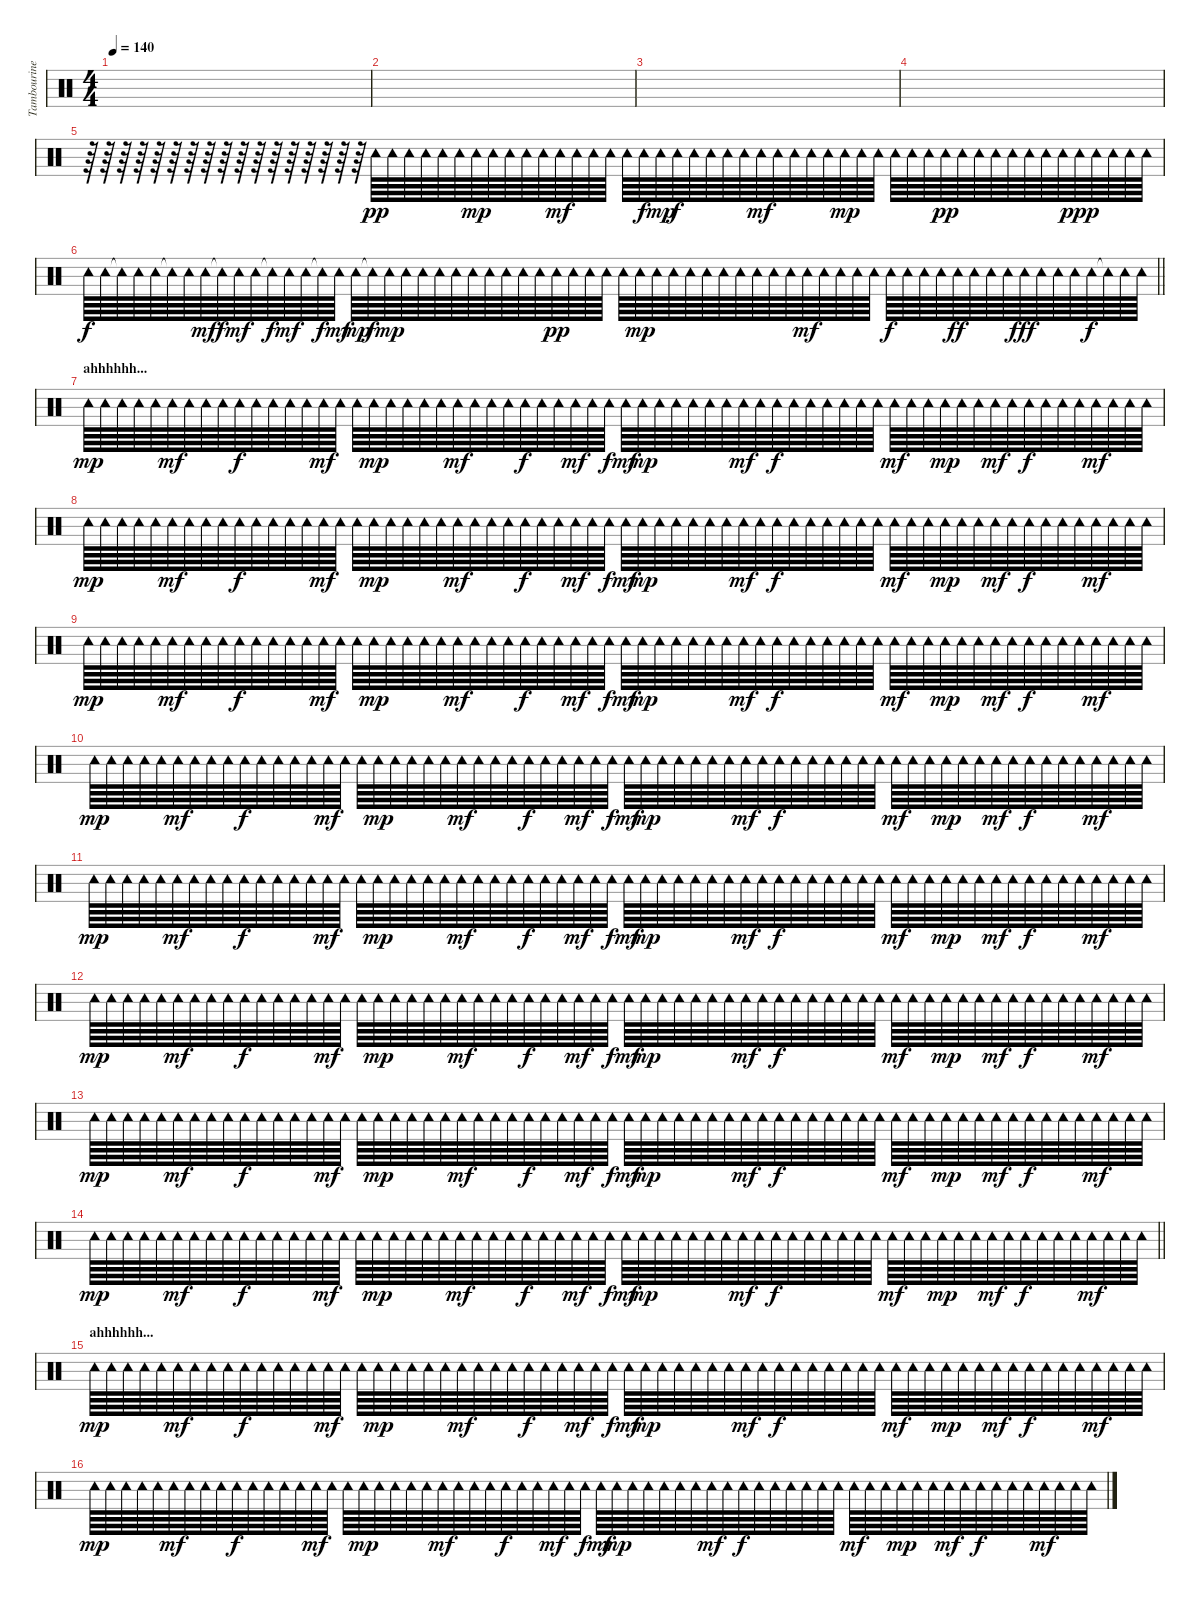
\track ("Tambourine" "Tambourine") {instrument percussion}
\staff {score}
\articulation defaults
\ts (4 4)
\tempo 140
\clef neutral
\ks c
|
|
|
|
r.64 r.64 r.64 r.64 r.64 r.64 r.64 r.64 r.64 r.64 r.64 r.64 r.64 r.64 r.64 r.64 r.64 "Tambourine (hit)".64{dy pp} "Tambourine (hit)".64 "Tambourine (hit)".64 "Tambourine (hit)".64 "Tambourine (hit)".64 "Tambourine (hit)".64 "Tambourine (hit)".64{dy mp} "Tambourine (hit)".64 "Tambourine (hit)".64 "Tambourine (hit)".64 "Tambourine (hit)".64 "Tambourine (hit)".64{dy mf} "Tambourine (hit)".64 "Tambourine (hit)".64 "Tambourine (hit)".64 "Tambourine (hit)".64 "Tambourine (hit)".64{dy f} "Tambourine (hit)".64{dy mp} "Tambourine (hit)".64{dy f} "Tambourine (hit)".64 "Tambourine (hit)".64 "Tambourine (hit)".64 "Tambourine (hit)".64 "Tambourine (hit)".64{dy mf} "Tambourine (hit)".64 "Tambourine (hit)".64 "Tambourine (hit)".64 "Tambourine (hit)".64 "Tambourine (hit)".64{dy mp} "Tambourine (hit)".64 "Tambourine (hit)".64 "Tambourine (hit)".64 "Tambourine (hit)".64 "Tambourine (hit)".64 "Tambourine (hit)".64{dy pp} "Tambourine (hit)".64 "Tambourine (hit)".64 "Tambourine (hit)".64 "Tambourine (hit)".64 "Tambourine (hit)".64 "Tambourine (hit)".64 "Tambourine (hit)".64 "Tambourine (hit)".64{dy ppp} "Tambourine (hit)".64 "Tambourine (hit)".64 "Tambourine (hit)".64 "Tambourine (hit)".64 |
\barLineRight lightlight "Tambourine (hit)".64{dy f} "Tambourine (hit)".64 "Tambourine (hit)"{t}.64 "Tambourine (hit)".64 "Tambourine (hit)".64 "Tambourine (hit)"{t}.64 "Tambourine (hit)".64 "Tambourine (hit)".64{dy mf} "Tambourine (hit)"{t}.64{dy f} "Tambourine (hit)".64{dy mf} "Tambourine (hit)".64 "Tambourine (hit)"{t}.64{dy f} "Tambourine (hit)".64{dy mf} "Tambourine (hit)".64 "Tambourine (hit)"{t}.64{dy f} "Tambourine (hit)".64{dy mf} "Tambourine (hit)".64{dy mp} "Tambourine (hit)"{t}.64{dy f} "Tambourine (hit)".64{dy mp} "Tambourine (hit)".64 "Tambourine (hit)".64 "Tambourine (hit)".64 "Tambourine (hit)".64 "Tambourine (hit)".64 "Tambourine (hit)".64 "Tambourine (hit)".64 "Tambourine (hit)".64 "Tambourine (hit)".64 "Tambourine (hit)".64{dy pp} "Tambourine (hit)".64 "Tambourine (hit)".64 "Tambourine (hit)".64 "Tambourine (hit)".64 "Tambourine (hit)".64{dy mp} "Tambourine (hit)".64 "Tambourine (hit)".64 "Tambourine (hit)".64 "Tambourine (hit)".64 "Tambourine (hit)".64 "Tambourine (hit)".64 "Tambourine (hit)".64 "Tambourine (hit)".64 "Tambourine (hit)".64 "Tambourine (hit)".64{dy mf} "Tambourine (hit)".64 "Tambourine (hit)".64 "Tambourine (hit)".64 "Tambourine (hit)".64 "Tambourine (hit)".64{dy f} "Tambourine (hit)".64 "Tambourine (hit)".64 "Tambourine (hit)".64 "Tambourine (hit)".64{dy ff} "Tambourine (hit)".64 "Tambourine (hit)".64 "Tambourine (hit)".64 "Tambourine (hit)".64{dy fff} "Tambourine (hit)".64 "Tambourine (hit)".64 "Tambourine (hit)".64 "Tambourine (hit)".64{dy f} "Tambourine (hit)"{t}.64 "Tambourine (hit)".64 "Tambourine (hit)".64
|
\section ("" "ahhhhhh...")
"Tambourine (hit)".64{dy mp} "Tambourine (hit)".64 "Tambourine (hit)".64 "Tambourine (hit)".64 "Tambourine (hit)".64 "Tambourine (hit)".64{dy mf} "Tambourine (hit)".64 "Tambourine (hit)".64 "Tambourine (hit)".64 "Tambourine (hit)".64{dy f} "Tambourine (hit)".64 "Tambourine (hit)".64 "Tambourine (hit)".64 "Tambourine (hit)".64 "Tambourine (hit)".64{dy mf} "Tambourine (hit)".64 "Tambourine (hit)".64 "Tambourine (hit)".64{dy mp} "Tambourine (hit)".64 "Tambourine (hit)".64 "Tambourine (hit)".64 "Tambourine (hit)".64 "Tambourine (hit)".64{dy mf} "Tambourine (hit)".64 "Tambourine (hit)".64 "Tambourine (hit)".64 "Tambourine (hit)".64{dy f} "Tambourine (hit)".64 "Tambourine (hit)".64 "Tambourine (hit)".64{dy mf} "Tambourine (hit)".64 "Tambourine (hit)".64{dy f} "Tambourine (hit)".64{dy mf} "Tambourine (hit)".64{dy mp} "Tambourine (hit)".64 "Tambourine (hit)".64 "Tambourine (hit)".64 "Tambourine (hit)".64 "Tambourine (hit)".64 "Tambourine (hit)".64{dy mf} "Tambourine (hit)".64 "Tambourine (hit)".64{dy f} "Tambourine (hit)".64 "Tambourine (hit)".64 "Tambourine (hit)".64 "Tambourine (hit)".64 "Tambourine (hit)".64 "Tambourine (hit)".64 "Tambourine (hit)".64{dy mf} "Tambourine (hit)".64 "Tambourine (hit)".64 "Tambourine (hit)".64{dy mp} "Tambourine (hit)".64 "Tambourine (hit)".64 "Tambourine (hit)".64{dy mf} "Tambourine (hit)".64 "Tambourine (hit)".64{dy f} "Tambourine (hit)".64 "Tambourine (hit)".64 "Tambourine (hit)".64 "Tambourine (hit)".64{dy mf} "Tambourine (hit)".64 "Tambourine (hit)".64 "Tambourine (hit)".64 |
"Tambourine (hit)".64{dy mp} "Tambourine (hit)".64 "Tambourine (hit)".64 "Tambourine (hit)".64 "Tambourine (hit)".64 "Tambourine (hit)".64{dy mf} "Tambourine (hit)".64 "Tambourine (hit)".64 "Tambourine (hit)".64 "Tambourine (hit)".64{dy f} "Tambourine (hit)".64 "Tambourine (hit)".64 "Tambourine (hit)".64 "Tambourine (hit)".64 "Tambourine (hit)".64{dy mf} "Tambourine (hit)".64 "Tambourine (hit)".64 "Tambourine (hit)".64{dy mp} "Tambourine (hit)".64 "Tambourine (hit)".64 "Tambourine (hit)".64 "Tambourine (hit)".64 "Tambourine (hit)".64{dy mf} "Tambourine (hit)".64 "Tambourine (hit)".64 "Tambourine (hit)".64 "Tambourine (hit)".64{dy f} "Tambourine (hit)".64 "Tambourine (hit)".64 "Tambourine (hit)".64{dy mf} "Tambourine (hit)".64 "Tambourine (hit)".64{dy f} "Tambourine (hit)".64{dy mf} "Tambourine (hit)".64{dy mp} "Tambourine (hit)".64 "Tambourine (hit)".64 "Tambourine (hit)".64 "Tambourine (hit)".64 "Tambourine (hit)".64 "Tambourine (hit)".64{dy mf} "Tambourine (hit)".64 "Tambourine (hit)".64{dy f} "Tambourine (hit)".64 "Tambourine (hit)".64 "Tambourine (hit)".64 "Tambourine (hit)".64 "Tambourine (hit)".64 "Tambourine (hit)".64 "Tambourine (hit)".64{dy mf} "Tambourine (hit)".64 "Tambourine (hit)".64 "Tambourine (hit)".64{dy mp} "Tambourine (hit)".64 "Tambourine (hit)".64 "Tambourine (hit)".64{dy mf} "Tambourine (hit)".64 "Tambourine (hit)".64{dy f} "Tambourine (hit)".64 "Tambourine (hit)".64 "Tambourine (hit)".64 "Tambourine (hit)".64{dy mf} "Tambourine (hit)".64 "Tambourine (hit)".64 "Tambourine (hit)".64 |
"Tambourine (hit)".64{dy mp} "Tambourine (hit)".64 "Tambourine (hit)".64 "Tambourine (hit)".64 "Tambourine (hit)".64 "Tambourine (hit)".64{dy mf} "Tambourine (hit)".64 "Tambourine (hit)".64 "Tambourine (hit)".64 "Tambourine (hit)".64{dy f} "Tambourine (hit)".64 "Tambourine (hit)".64 "Tambourine (hit)".64 "Tambourine (hit)".64 "Tambourine (hit)".64{dy mf} "Tambourine (hit)".64 "Tambourine (hit)".64 "Tambourine (hit)".64{dy mp} "Tambourine (hit)".64 "Tambourine (hit)".64 "Tambourine (hit)".64 "Tambourine (hit)".64 "Tambourine (hit)".64{dy mf} "Tambourine (hit)".64 "Tambourine (hit)".64 "Tambourine (hit)".64 "Tambourine (hit)".64{dy f} "Tambourine (hit)".64 "Tambourine (hit)".64 "Tambourine (hit)".64{dy mf} "Tambourine (hit)".64 "Tambourine (hit)".64{dy f} "Tambourine (hit)".64{dy mf} "Tambourine (hit)".64{dy mp} "Tambourine (hit)".64 "Tambourine (hit)".64 "Tambourine (hit)".64 "Tambourine (hit)".64 "Tambourine (hit)".64 "Tambourine (hit)".64{dy mf} "Tambourine (hit)".64 "Tambourine (hit)".64{dy f} "Tambourine (hit)".64 "Tambourine (hit)".64 "Tambourine (hit)".64 "Tambourine (hit)".64 "Tambourine (hit)".64 "Tambourine (hit)".64 "Tambourine (hit)".64{dy mf} "Tambourine (hit)".64 "Tambourine (hit)".64 "Tambourine (hit)".64{dy mp} "Tambourine (hit)".64 "Tambourine (hit)".64 "Tambourine (hit)".64{dy mf} "Tambourine (hit)".64 "Tambourine (hit)".64{dy f} "Tambourine (hit)".64 "Tambourine (hit)".64 "Tambourine (hit)".64 "Tambourine (hit)".64{dy mf} "Tambourine (hit)".64 "Tambourine (hit)".64 "Tambourine (hit)".64 |
"Tambourine (hit)".64{dy mp} "Tambourine (hit)".64 "Tambourine (hit)".64 "Tambourine (hit)".64 "Tambourine (hit)".64 "Tambourine (hit)".64{dy mf} "Tambourine (hit)".64 "Tambourine (hit)".64 "Tambourine (hit)".64 "Tambourine (hit)".64{dy f} "Tambourine (hit)".64 "Tambourine (hit)".64 "Tambourine (hit)".64 "Tambourine (hit)".64 "Tambourine (hit)".64{dy mf} "Tambourine (hit)".64 "Tambourine (hit)".64 "Tambourine (hit)".64{dy mp} "Tambourine (hit)".64 "Tambourine (hit)".64 "Tambourine (hit)".64 "Tambourine (hit)".64 "Tambourine (hit)".64{dy mf} "Tambourine (hit)".64 "Tambourine (hit)".64 "Tambourine (hit)".64 "Tambourine (hit)".64{dy f} "Tambourine (hit)".64 "Tambourine (hit)".64 "Tambourine (hit)".64{dy mf} "Tambourine (hit)".64 "Tambourine (hit)".64{dy f} "Tambourine (hit)".64{dy mf} "Tambourine (hit)".64{dy mp} "Tambourine (hit)".64 "Tambourine (hit)".64 "Tambourine (hit)".64 "Tambourine (hit)".64 "Tambourine (hit)".64 "Tambourine (hit)".64{dy mf} "Tambourine (hit)".64 "Tambourine (hit)".64{dy f} "Tambourine (hit)".64 "Tambourine (hit)".64 "Tambourine (hit)".64 "Tambourine (hit)".64 "Tambourine (hit)".64 "Tambourine (hit)".64 "Tambourine (hit)".64{dy mf} "Tambourine (hit)".64 "Tambourine (hit)".64 "Tambourine (hit)".64{dy mp} "Tambourine (hit)".64 "Tambourine (hit)".64 "Tambourine (hit)".64{dy mf} "Tambourine (hit)".64 "Tambourine (hit)".64{dy f} "Tambourine (hit)".64 "Tambourine (hit)".64 "Tambourine (hit)".64 "Tambourine (hit)".64{dy mf} "Tambourine (hit)".64 "Tambourine (hit)".64 "Tambourine (hit)".64 |
"Tambourine (hit)".64{dy mp} "Tambourine (hit)".64 "Tambourine (hit)".64 "Tambourine (hit)".64 "Tambourine (hit)".64 "Tambourine (hit)".64{dy mf} "Tambourine (hit)".64 "Tambourine (hit)".64 "Tambourine (hit)".64 "Tambourine (hit)".64{dy f} "Tambourine (hit)".64 "Tambourine (hit)".64 "Tambourine (hit)".64 "Tambourine (hit)".64 "Tambourine (hit)".64{dy mf} "Tambourine (hit)".64 "Tambourine (hit)".64 "Tambourine (hit)".64{dy mp} "Tambourine (hit)".64 "Tambourine (hit)".64 "Tambourine (hit)".64 "Tambourine (hit)".64 "Tambourine (hit)".64{dy mf} "Tambourine (hit)".64 "Tambourine (hit)".64 "Tambourine (hit)".64 "Tambourine (hit)".64{dy f} "Tambourine (hit)".64 "Tambourine (hit)".64 "Tambourine (hit)".64{dy mf} "Tambourine (hit)".64 "Tambourine (hit)".64{dy f} "Tambourine (hit)".64{dy mf} "Tambourine (hit)".64{dy mp} "Tambourine (hit)".64 "Tambourine (hit)".64 "Tambourine (hit)".64 "Tambourine (hit)".64 "Tambourine (hit)".64 "Tambourine (hit)".64{dy mf} "Tambourine (hit)".64 "Tambourine (hit)".64{dy f} "Tambourine (hit)".64 "Tambourine (hit)".64 "Tambourine (hit)".64 "Tambourine (hit)".64 "Tambourine (hit)".64 "Tambourine (hit)".64 "Tambourine (hit)".64{dy mf} "Tambourine (hit)".64 "Tambourine (hit)".64 "Tambourine (hit)".64{dy mp} "Tambourine (hit)".64 "Tambourine (hit)".64 "Tambourine (hit)".64{dy mf} "Tambourine (hit)".64 "Tambourine (hit)".64{dy f} "Tambourine (hit)".64 "Tambourine (hit)".64 "Tambourine (hit)".64 "Tambourine (hit)".64{dy mf} "Tambourine (hit)".64 "Tambourine (hit)".64 "Tambourine (hit)".64 |
"Tambourine (hit)".64{dy mp} "Tambourine (hit)".64 "Tambourine (hit)".64 "Tambourine (hit)".64 "Tambourine (hit)".64 "Tambourine (hit)".64{dy mf} "Tambourine (hit)".64 "Tambourine (hit)".64 "Tambourine (hit)".64 "Tambourine (hit)".64{dy f} "Tambourine (hit)".64 "Tambourine (hit)".64 "Tambourine (hit)".64 "Tambourine (hit)".64 "Tambourine (hit)".64{dy mf} "Tambourine (hit)".64 "Tambourine (hit)".64 "Tambourine (hit)".64{dy mp} "Tambourine (hit)".64 "Tambourine (hit)".64 "Tambourine (hit)".64 "Tambourine (hit)".64 "Tambourine (hit)".64{dy mf} "Tambourine (hit)".64 "Tambourine (hit)".64 "Tambourine (hit)".64 "Tambourine (hit)".64{dy f} "Tambourine (hit)".64 "Tambourine (hit)".64 "Tambourine (hit)".64{dy mf} "Tambourine (hit)".64 "Tambourine (hit)".64{dy f} "Tambourine (hit)".64{dy mf} "Tambourine (hit)".64{dy mp} "Tambourine (hit)".64 "Tambourine (hit)".64 "Tambourine (hit)".64 "Tambourine (hit)".64 "Tambourine (hit)".64 "Tambourine (hit)".64{dy mf} "Tambourine (hit)".64 "Tambourine (hit)".64{dy f} "Tambourine (hit)".64 "Tambourine (hit)".64 "Tambourine (hit)".64 "Tambourine (hit)".64 "Tambourine (hit)".64 "Tambourine (hit)".64 "Tambourine (hit)".64{dy mf} "Tambourine (hit)".64 "Tambourine (hit)".64 "Tambourine (hit)".64{dy mp} "Tambourine (hit)".64 "Tambourine (hit)".64 "Tambourine (hit)".64{dy mf} "Tambourine (hit)".64 "Tambourine (hit)".64{dy f} "Tambourine (hit)".64 "Tambourine (hit)".64 "Tambourine (hit)".64 "Tambourine (hit)".64{dy mf} "Tambourine (hit)".64 "Tambourine (hit)".64 "Tambourine (hit)".64 |
"Tambourine (hit)".64{dy mp} "Tambourine (hit)".64 "Tambourine (hit)".64 "Tambourine (hit)".64 "Tambourine (hit)".64 "Tambourine (hit)".64{dy mf} "Tambourine (hit)".64 "Tambourine (hit)".64 "Tambourine (hit)".64 "Tambourine (hit)".64{dy f} "Tambourine (hit)".64 "Tambourine (hit)".64 "Tambourine (hit)".64 "Tambourine (hit)".64 "Tambourine (hit)".64{dy mf} "Tambourine (hit)".64 "Tambourine (hit)".64 "Tambourine (hit)".64{dy mp} "Tambourine (hit)".64 "Tambourine (hit)".64 "Tambourine (hit)".64 "Tambourine (hit)".64 "Tambourine (hit)".64{dy mf} "Tambourine (hit)".64 "Tambourine (hit)".64 "Tambourine (hit)".64 "Tambourine (hit)".64{dy f} "Tambourine (hit)".64 "Tambourine (hit)".64 "Tambourine (hit)".64{dy mf} "Tambourine (hit)".64 "Tambourine (hit)".64{dy f} "Tambourine (hit)".64{dy mf} "Tambourine (hit)".64{dy mp} "Tambourine (hit)".64 "Tambourine (hit)".64 "Tambourine (hit)".64 "Tambourine (hit)".64 "Tambourine (hit)".64 "Tambourine (hit)".64{dy mf} "Tambourine (hit)".64 "Tambourine (hit)".64{dy f} "Tambourine (hit)".64 "Tambourine (hit)".64 "Tambourine (hit)".64 "Tambourine (hit)".64 "Tambourine (hit)".64 "Tambourine (hit)".64 "Tambourine (hit)".64{dy mf} "Tambourine (hit)".64 "Tambourine (hit)".64 "Tambourine (hit)".64{dy mp} "Tambourine (hit)".64 "Tambourine (hit)".64 "Tambourine (hit)".64{dy mf} "Tambourine (hit)".64 "Tambourine (hit)".64{dy f} "Tambourine (hit)".64 "Tambourine (hit)".64 "Tambourine (hit)".64 "Tambourine (hit)".64{dy mf} "Tambourine (hit)".64 "Tambourine (hit)".64 "Tambourine (hit)".64 |
\barLineRight lightlight "Tambourine (hit)".64{dy mp} "Tambourine (hit)".64 "Tambourine (hit)".64 "Tambourine (hit)".64 "Tambourine (hit)".64 "Tambourine (hit)".64{dy mf} "Tambourine (hit)".64 "Tambourine (hit)".64 "Tambourine (hit)".64 "Tambourine (hit)".64{dy f} "Tambourine (hit)".64 "Tambourine (hit)".64 "Tambourine (hit)".64 "Tambourine (hit)".64 "Tambourine (hit)".64{dy mf} "Tambourine (hit)".64 "Tambourine (hit)".64 "Tambourine (hit)".64{dy mp} "Tambourine (hit)".64 "Tambourine (hit)".64 "Tambourine (hit)".64 "Tambourine (hit)".64 "Tambourine (hit)".64{dy mf} "Tambourine (hit)".64 "Tambourine (hit)".64 "Tambourine (hit)".64 "Tambourine (hit)".64{dy f} "Tambourine (hit)".64 "Tambourine (hit)".64 "Tambourine (hit)".64{dy mf} "Tambourine (hit)".64 "Tambourine (hit)".64{dy f} "Tambourine (hit)".64{dy mf} "Tambourine (hit)".64{dy mp} "Tambourine (hit)".64 "Tambourine (hit)".64 "Tambourine (hit)".64 "Tambourine (hit)".64 "Tambourine (hit)".64 "Tambourine (hit)".64{dy mf} "Tambourine (hit)".64 "Tambourine (hit)".64{dy f} "Tambourine (hit)".64 "Tambourine (hit)".64 "Tambourine (hit)".64 "Tambourine (hit)".64 "Tambourine (hit)".64 "Tambourine (hit)".64 "Tambourine (hit)".64{dy mf} "Tambourine (hit)".64 "Tambourine (hit)".64 "Tambourine (hit)".64{dy mp} "Tambourine (hit)".64 "Tambourine (hit)".64 "Tambourine (hit)".64{dy mf} "Tambourine (hit)".64 "Tambourine (hit)".64{dy f} "Tambourine (hit)".64 "Tambourine (hit)".64 "Tambourine (hit)".64 "Tambourine (hit)".64{dy mf} "Tambourine (hit)".64 "Tambourine (hit)".64 "Tambourine (hit)".64
|
\section ("" "ahhhhhh...")
"Tambourine (hit)".64{dy mp} "Tambourine (hit)".64 "Tambourine (hit)".64 "Tambourine (hit)".64 "Tambourine (hit)".64 "Tambourine (hit)".64{dy mf} "Tambourine (hit)".64 "Tambourine (hit)".64 "Tambourine (hit)".64 "Tambourine (hit)".64{dy f} "Tambourine (hit)".64 "Tambourine (hit)".64 "Tambourine (hit)".64 "Tambourine (hit)".64 "Tambourine (hit)".64{dy mf} "Tambourine (hit)".64 "Tambourine (hit)".64 "Tambourine (hit)".64{dy mp} "Tambourine (hit)".64 "Tambourine (hit)".64 "Tambourine (hit)".64 "Tambourine (hit)".64 "Tambourine (hit)".64{dy mf} "Tambourine (hit)".64 "Tambourine (hit)".64 "Tambourine (hit)".64 "Tambourine (hit)".64{dy f} "Tambourine (hit)".64 "Tambourine (hit)".64 "Tambourine (hit)".64{dy mf} "Tambourine (hit)".64 "Tambourine (hit)".64{dy f} "Tambourine (hit)".64{dy mf} "Tambourine (hit)".64{dy mp} "Tambourine (hit)".64 "Tambourine (hit)".64 "Tambourine (hit)".64 "Tambourine (hit)".64 "Tambourine (hit)".64 "Tambourine (hit)".64{dy mf} "Tambourine (hit)".64 "Tambourine (hit)".64{dy f} "Tambourine (hit)".64 "Tambourine (hit)".64 "Tambourine (hit)".64 "Tambourine (hit)".64 "Tambourine (hit)".64 "Tambourine (hit)".64 "Tambourine (hit)".64{dy mf} "Tambourine (hit)".64 "Tambourine (hit)".64 "Tambourine (hit)".64{dy mp} "Tambourine (hit)".64 "Tambourine (hit)".64 "Tambourine (hit)".64{dy mf} "Tambourine (hit)".64 "Tambourine (hit)".64{dy f} "Tambourine (hit)".64 "Tambourine (hit)".64 "Tambourine (hit)".64 "Tambourine (hit)".64{dy mf} "Tambourine (hit)".64 "Tambourine (hit)".64 "Tambourine (hit)".64 |
"Tambourine (hit)".64{dy mp} "Tambourine (hit)".64 "Tambourine (hit)".64 "Tambourine (hit)".64 "Tambourine (hit)".64 "Tambourine (hit)".64{dy mf} "Tambourine (hit)".64 "Tambourine (hit)".64 "Tambourine (hit)".64 "Tambourine (hit)".64{dy f} "Tambourine (hit)".64 "Tambourine (hit)".64 "Tambourine (hit)".64 "Tambourine (hit)".64 "Tambourine (hit)".64{dy mf} "Tambourine (hit)".64 "Tambourine (hit)".64 "Tambourine (hit)".64{dy mp} "Tambourine (hit)".64 "Tambourine (hit)".64 "Tambourine (hit)".64 "Tambourine (hit)".64 "Tambourine (hit)".64{dy mf} "Tambourine (hit)".64 "Tambourine (hit)".64 "Tambourine (hit)".64 "Tambourine (hit)".64{dy f} "Tambourine (hit)".64 "Tambourine (hit)".64 "Tambourine (hit)".64{dy mf} "Tambourine (hit)".64 "Tambourine (hit)".64{dy f} "Tambourine (hit)".64{dy mf} "Tambourine (hit)".64{dy mp} "Tambourine (hit)".64 "Tambourine (hit)".64 "Tambourine (hit)".64 "Tambourine (hit)".64 "Tambourine (hit)".64 "Tambourine (hit)".64{dy mf} "Tambourine (hit)".64 "Tambourine (hit)".64{dy f} "Tambourine (hit)".64 "Tambourine (hit)".64 "Tambourine (hit)".64 "Tambourine (hit)".64 "Tambourine (hit)".64 "Tambourine (hit)".64 "Tambourine (hit)".64{dy mf} "Tambourine (hit)".64 "Tambourine (hit)".64 "Tambourine (hit)".64{dy mp} "Tambourine (hit)".64 "Tambourine (hit)".64 "Tambourine (hit)".64{dy mf} "Tambourine (hit)".64 "Tambourine (hit)".64{dy f} "Tambourine (hit)".64 "Tambourine (hit)".64 "Tambourine (hit)".64 "Tambourine (hit)".64{dy mf} "Tambourine (hit)".64 "Tambourine (hit)".64 "Tambourine (hit)".64
